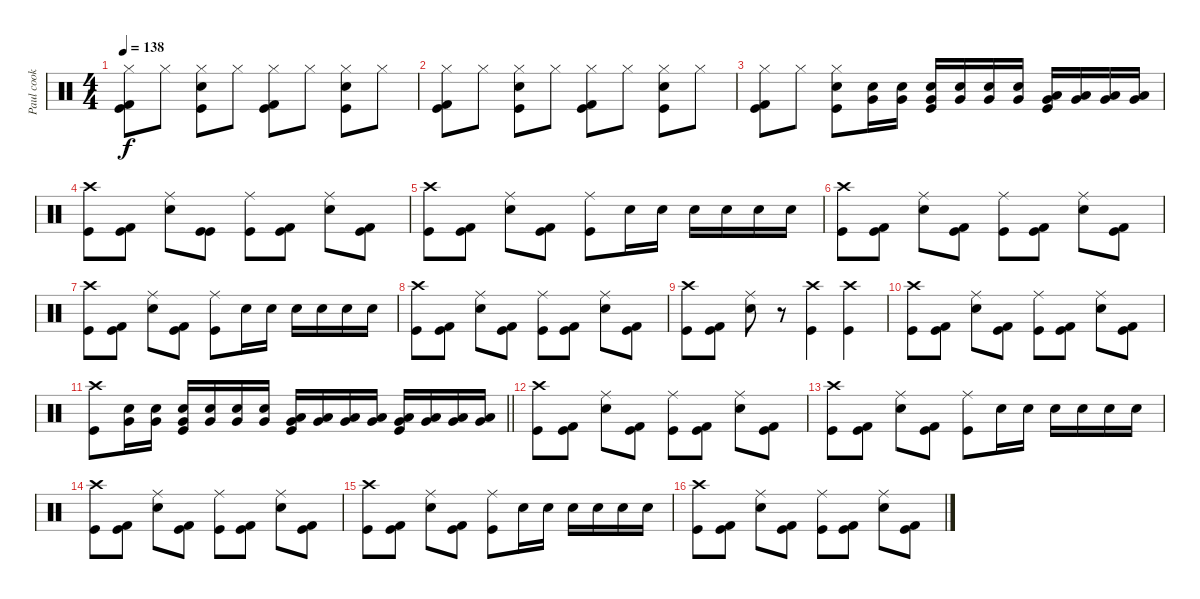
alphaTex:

\track ("Paul cook" "Paul cook") {instrument percussion}
\staff {score}
\articulation defaults
\ts (4 4)
\tempo 138
\clef neutral
\ks c
("Kick (hit) 2" "Hi-Hat (closed)" "Kick (hit)").8{dy f} "Hi-Hat (closed)".8 ("Hi-Hat (closed)" "Snare (hit) 2" "Kick (hit)").8 "Hi-Hat (closed)".8 ("Kick (hit) 2" "Hi-Hat (closed)" "Kick (hit)").8 "Hi-Hat (closed)".8 ("Hi-Hat (closed)" "Snare (hit) 2" "Kick (hit)").8 "Hi-Hat (closed)".8 |
("Kick (hit) 2" "Hi-Hat (closed)" "Kick (hit)").8 "Hi-Hat (closed)".8 ("Hi-Hat (closed)" "Snare (hit) 2" "Kick (hit)").8 "Hi-Hat (closed)".8 ("Kick (hit) 2" "Hi-Hat (closed)" "Kick (hit)").8 "Hi-Hat (closed)".8 ("Hi-Hat (closed)" "Snare (hit) 2" "Kick (hit)").8 "Hi-Hat (closed)".8 |
("Kick (hit) 2" "Hi-Hat (closed)" "Kick (hit)").8 "Hi-Hat (closed)".8 ("Hi-Hat (closed)" "Snare (hit) 2" "Kick (hit)").8 ("Very Low Tom (hit)" "Snare (hit) 2").16 ("Very Low Tom (hit)" "Snare (hit) 2").16 ("Very Low Tom (hit)" "Snare (hit) 2" "Kick (hit)").16 ("Very Low Tom (hit)" "Snare (hit) 2").16 ("Very Low Tom (hit)" "Snare (hit) 2").16 ("Very Low Tom (hit)" "Snare (hit) 2").16 ("Very Low Tom (hit)" "Low Tom (hit)" "Kick (hit)").16 ("Very Low Tom (hit)" "Low Tom (hit)").16 ("Very Low Tom (hit)" "Low Tom (hit)").16 ("Very Low Tom (hit)" "Low Tom (hit)").16 |
("Crash high (hit)" "Kick (hit)").8 ("Kick (hit) 2" "Kick (hit)").8 ("Ride (middle)" "Snare (hit) 2").8 ("Kick (hit)" "Kick (hit)").8 ("Ride (middle)" "Kick (hit)").8 ("Kick (hit) 2" "Kick (hit)").8 ("Ride (middle)" "Snare (hit) 2").8 ("Kick (hit) 2" "Kick (hit)").8 |
("Crash high (hit)" "Kick (hit)").8 ("Kick (hit) 2" "Kick (hit)").8 ("Ride (middle)" "Snare (hit) 2").8 ("Kick (hit) 2" "Kick (hit)").8 ("Ride (middle)" "Kick (hit)").8 "Snare (hit) 2".16 "Snare (hit) 2".16 "Snare (hit) 2".16 "Snare (hit) 2".16 "Snare (hit) 2".16 "Snare (hit) 2".16 |
("Crash high (hit)" "Kick (hit)").8 ("Kick (hit) 2" "Kick (hit)").8 ("Ride (middle)" "Snare (hit) 2").8 ("Kick (hit) 2" "Kick (hit)").8 ("Ride (middle)" "Kick (hit)").8 ("Kick (hit) 2" "Kick (hit)").8 ("Ride (middle)" "Snare (hit) 2").8 ("Kick (hit) 2" "Kick (hit)").8 |
("Crash high (hit)" "Kick (hit)").8 ("Kick (hit) 2" "Kick (hit)").8 ("Ride (middle)" "Snare (hit) 2").8 ("Kick (hit) 2" "Kick (hit)").8 ("Ride (middle)" "Kick (hit)").8 "Snare (hit) 2".16 "Snare (hit) 2".16 "Snare (hit) 2".16 "Snare (hit) 2".16 "Snare (hit) 2".16 "Snare (hit) 2".16 |
("Crash high (hit)" "Kick (hit)").8 ("Kick (hit) 2" "Kick (hit)").8 ("Ride (middle)" "Snare (hit) 2").8 ("Kick (hit) 2" "Kick (hit)").8 ("Ride (middle)" "Kick (hit)").8 ("Kick (hit) 2" "Kick (hit)").8 ("Ride (middle)" "Snare (hit) 2").8 ("Kick (hit) 2" "Kick (hit)").8 |
("Crash high (hit)" "Kick (hit)").8 ("Kick (hit) 2" "Kick (hit)").8 ("Ride (middle)" "Snare (hit) 2").8 r.8 ("Crash high (hit)" "Kick (hit)").4 ("Crash high (hit)" "Kick (hit)").4 |
("Crash high (hit)" "Kick (hit)").8 ("Kick (hit) 2" "Kick (hit)").8 ("Ride (middle)" "Snare (hit) 2").8 ("Kick (hit) 2" "Kick (hit)").8 ("Ride (middle)" "Kick (hit)").8 ("Kick (hit) 2" "Kick (hit)").8 ("Ride (middle)" "Snare (hit) 2").8 ("Kick (hit) 2" "Kick (hit)").8 |
\barLineRight lightlight
("Crash high (hit)" "Kick (hit)").8 ("Very Low Tom (hit)" "Snare (hit) 2").16 ("Very Low Tom (hit)" "Snare (hit) 2").16 ("Very Low Tom (hit)" "Snare (hit) 2" "Kick (hit)").16 ("Very Low Tom (hit)" "Snare (hit) 2").16 ("Very Low Tom (hit)" "Snare (hit) 2").16 ("Very Low Tom (hit)" "Snare (hit) 2").16 ("Very Low Tom (hit)" "Low Tom (hit)" "Kick (hit)").16 ("Very Low Tom (hit)" "Low Tom (hit)").16 ("Very Low Tom (hit)" "Low Tom (hit)").16 ("Very Low Tom (hit)" "Low Tom (hit)").16 ("Very Low Tom (hit)" "Low Tom (hit)" "Kick (hit)").16 ("Very Low Tom (hit)" "Low Tom (hit)").16 ("Very Low Tom (hit)" "Low Tom (hit)").16 ("Very Low Tom (hit)" "Low Tom (hit)").16 |
("Crash high (hit)" "Kick (hit)").8 ("Kick (hit) 2" "Kick (hit)").8 ("Ride (middle)" "Snare (hit) 2").8 ("Kick (hit) 2" "Kick (hit)").8 ("Ride (middle)" "Kick (hit)").8 ("Kick (hit) 2" "Kick (hit)").8 ("Ride (middle)" "Snare (hit) 2").8 ("Kick (hit) 2" "Kick (hit)").8 |
("Crash high (hit)" "Kick (hit)").8 ("Kick (hit) 2" "Kick (hit)").8 ("Ride (middle)" "Snare (hit) 2").8 ("Kick (hit) 2" "Kick (hit)").8 ("Ride (middle)" "Kick (hit)").8 "Snare (hit) 2".16 "Snare (hit) 2".16 "Snare (hit) 2".16 "Snare (hit) 2".16 "Snare (hit) 2".16 "Snare (hit) 2".16 |
("Crash high (hit)" "Kick (hit)").8 ("Kick (hit) 2" "Kick (hit)").8 ("Ride (middle)" "Snare (hit) 2").8 ("Kick (hit) 2" "Kick (hit)").8 ("Ride (middle)" "Kick (hit)").8 ("Kick (hit) 2" "Kick (hit)").8 ("Ride (middle)" "Snare (hit) 2").8 ("Kick (hit) 2" "Kick (hit)").8 |
("Crash high (hit)" "Kick (hit)").8 ("Kick (hit) 2" "Kick (hit)").8 ("Ride (middle)" "Snare (hit) 2").8 ("Kick (hit) 2" "Kick (hit)").8 ("Ride (middle)" "Kick (hit)").8 "Snare (hit) 2".16 "Snare (hit) 2".16 "Snare (hit) 2".16 "Snare (hit) 2".16 "Snare (hit) 2".16 "Snare (hit) 2".16 |
("Crash high (hit)" "Kick (hit)").8 ("Kick (hit) 2" "Kick (hit)").8 ("Ride (middle)" "Snare (hit) 2").8 ("Kick (hit) 2" "Kick (hit)").8 ("Ride (middle)" "Kick (hit)").8 ("Kick (hit) 2" "Kick (hit)").8 ("Ride (middle)" "Snare (hit) 2").8 ("Kick (hit) 2" "Kick (hit)").8
